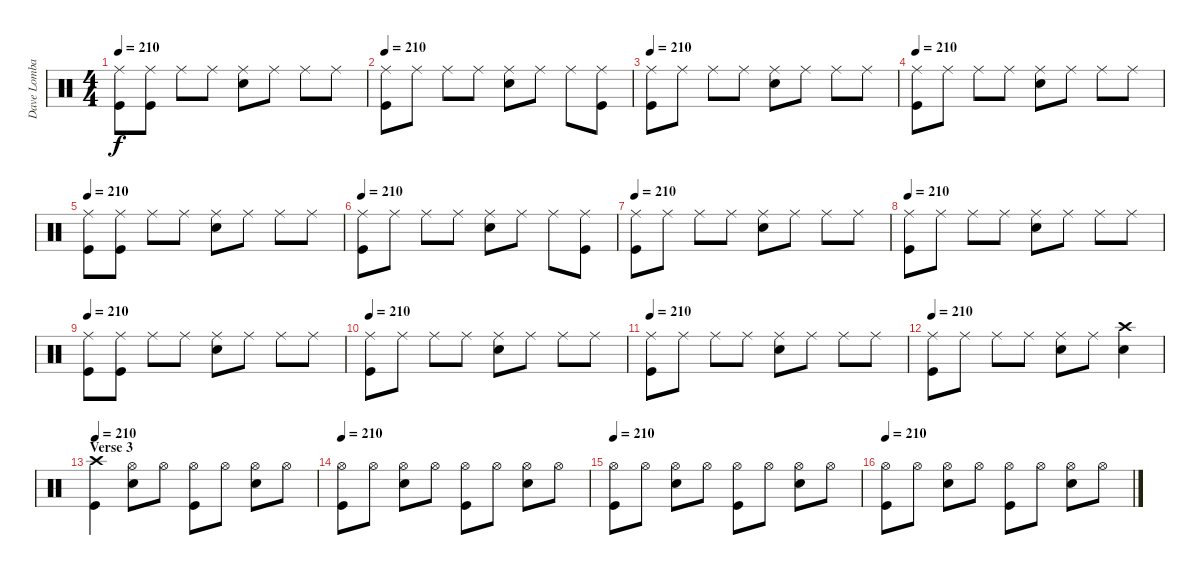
\track ("Dave Lombardo" "Dave Lomba") {instrument percussion}
\staff {score}
\articulation defaults
\ts (4 4)
\tempo 210
\clef neutral
\ks c
("Ride (middle)" "Kick (hit)").8{dy f} ("Ride (middle)" "Kick (hit)").8 "Ride (middle)".8 "Ride (middle)".8 ("Ride (middle)" "Snare (hit) 2").8 "Ride (middle)".8 "Ride (middle)".8 "Ride (middle)".8 |
\tempo 210
("Ride (middle)" "Kick (hit)").8 "Ride (middle)".8 "Ride (middle)".8 "Ride (middle)".8 ("Ride (middle)" "Snare (hit) 2").8 "Ride (middle)".8 "Ride (middle)".8 ("Ride (middle)" "Kick (hit)").8 |
\tempo 210
("Ride (middle)" "Kick (hit)").8 "Ride (middle)".8 "Ride (middle)".8 "Ride (middle)".8 ("Ride (middle)" "Snare (hit) 2").8 "Ride (middle)".8 "Ride (middle)".8 "Ride (middle)".8 |
\tempo 210
("Ride (middle)" "Kick (hit)").8 "Ride (middle)".8 "Ride (middle)".8 "Ride (middle)".8 ("Ride (middle)" "Snare (hit) 2").8 "Ride (middle)".8 "Ride (middle)".8 "Ride (middle)".8 |
\tempo 210
("Ride (middle)" "Kick (hit)").8 ("Ride (middle)" "Kick (hit)").8 "Ride (middle)".8 "Ride (middle)".8 ("Ride (middle)" "Snare (hit) 2").8 "Ride (middle)".8 "Ride (middle)".8 "Ride (middle)".8 |
\tempo 210
("Ride (middle)" "Kick (hit)").8 "Ride (middle)".8 "Ride (middle)".8 "Ride (middle)".8 ("Ride (middle)" "Snare (hit) 2").8 "Ride (middle)".8 "Ride (middle)".8 ("Ride (middle)" "Kick (hit)").8 |
\tempo 210
("Ride (middle)" "Kick (hit)").8 "Ride (middle)".8 "Ride (middle)".8 "Ride (middle)".8 ("Ride (middle)" "Snare (hit) 2").8 "Ride (middle)".8 "Ride (middle)".8 "Ride (middle)".8 |
\tempo 210
("Ride (middle)" "Kick (hit)").8 "Ride (middle)".8 "Ride (middle)".8 "Ride (middle)".8 ("Ride (middle)" "Snare (hit) 2").8 "Ride (middle)".8 "Ride (middle)".8 "Ride (middle)".8 |
\tempo 210
("Ride (middle)" "Kick (hit)").8 ("Ride (middle)" "Kick (hit)").8 "Ride (middle)".8 "Ride (middle)".8 ("Ride (middle)" "Snare (hit) 2").8 "Ride (middle)".8 "Ride (middle)".8 "Ride (middle)".8 |
\tempo 210
("Ride (middle)" "Kick (hit)").8 "Ride (middle)".8 "Ride (middle)".8 "Ride (middle)".8 ("Ride (middle)" "Snare (hit) 2").8 "Ride (middle)".8 "Ride (middle)".8 "Ride (middle)".8 |
\tempo 210
("Ride (middle)" "Kick (hit)").8 "Ride (middle)".8 "Ride (middle)".8 "Ride (middle)".8 ("Ride (middle)" "Snare (hit) 2").8 "Ride (middle)".8 "Ride (middle)".8 "Ride (middle)".8 |
\tempo 210
("Ride (middle)" "Kick (hit)").8 "Ride (middle)".8 "Ride (middle)".8 "Ride (middle)".8 ("Ride (middle)" "Snare (hit) 2").8 "Ride (middle)".8 ("Crash high (hit)" "Snare (hit) 2").4 |
\section ("" "Verse 3")
\tempo 210
("Crash high (hit)" "Kick (hit)").4 ("Hi-Hat (open)" "Snare (hit) 2").8 "Hi-Hat (open)".8 ("Hi-Hat (open)" "Kick (hit)").8 "Hi-Hat (open)".8 ("Hi-Hat (open)" "Snare (hit) 2").8 "Hi-Hat (open)".8 |
\tempo 210
("Hi-Hat (open)" "Kick (hit)").8 "Hi-Hat (open)".8 ("Hi-Hat (open)" "Snare (hit) 2").8 "Hi-Hat (open)".8 ("Hi-Hat (open)" "Kick (hit)").8 "Hi-Hat (open)".8 ("Hi-Hat (open)" "Snare (hit) 2").8 "Hi-Hat (open)".8 |
\tempo 210
("Hi-Hat (open)" "Kick (hit)").8 "Hi-Hat (open)".8 ("Hi-Hat (open)" "Snare (hit) 2").8 "Hi-Hat (open)".8 ("Hi-Hat (open)" "Kick (hit)").8 "Hi-Hat (open)".8 ("Hi-Hat (open)" "Snare (hit) 2").8 "Hi-Hat (open)".8 |
\tempo 210
("Hi-Hat (open)" "Kick (hit)").8 "Hi-Hat (open)".8 ("Hi-Hat (open)" "Snare (hit) 2").8 "Hi-Hat (open)".8 ("Hi-Hat (open)" "Kick (hit)").8 "Hi-Hat (open)".8 ("Hi-Hat (open)" "Snare (hit) 2").8 "Hi-Hat (open)".8
